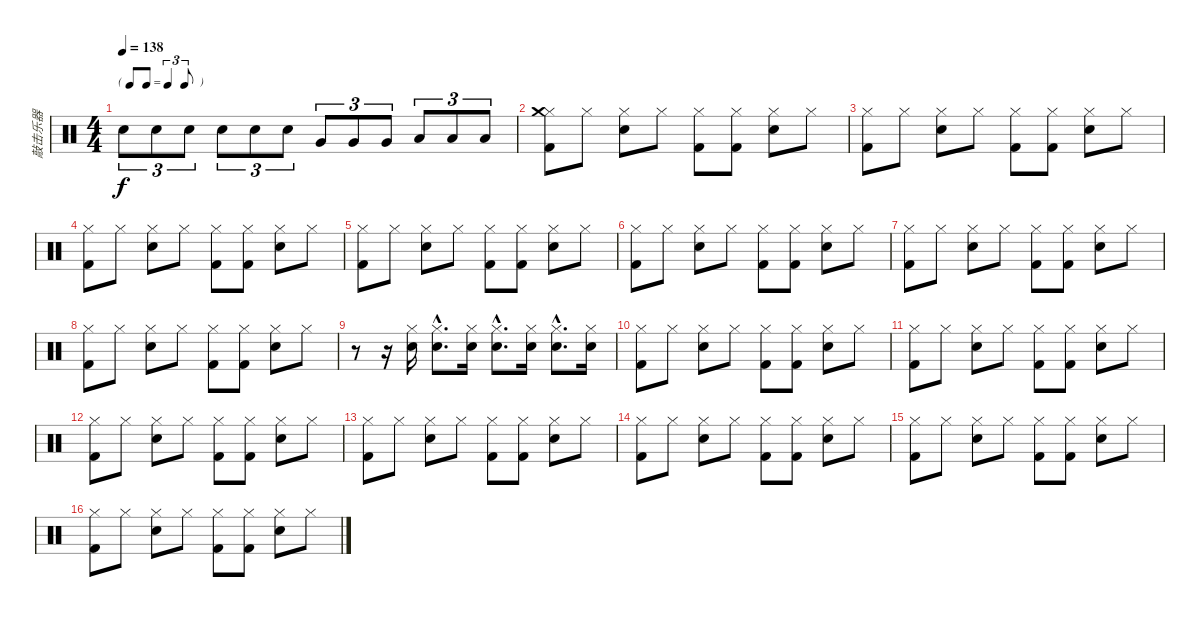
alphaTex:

\track ("敲击乐器" "敲击乐器") {instrument percussion}
\staff {score}
\articulation defaults
\ts (4 4)
\tf triplet8th
\tempo 138
\clef neutral
\ks c "Snare (hit) 2".8{tu (3 2) dy f} "Snare (hit) 2".8{tu (3 2)} "Snare (hit) 2".8{tu (3 2)} "Snare (hit) 2".8{tu (3 2)} "Snare (hit) 2".8{tu (3 2)} "Snare (hit) 2".8{tu (3 2)} "Very Low Tom (hit)".8{tu (3 2)} "Very Low Tom (hit)".8{tu (3 2)} "Very Low Tom (hit)".8{tu (3 2)} "Low Floor Tom (hit)".8{tu (3 2)} "Low Floor Tom (hit)".8{tu (3 2)} "Low Floor Tom (hit)".8{tu (3 2)}
|
("Hi-Hat (closed)" "Crash medium (hit)" "Kick (hit) 2").8 "Hi-Hat (closed)".8 ("Hi-Hat (closed)" "Electric Snare (hit)").8 "Hi-Hat (closed)".8 ("Hi-Hat (closed)" "Kick (hit) 2").8 ("Hi-Hat (closed)" "Kick (hit) 2").8 ("Hi-Hat (closed)" "Electric Snare (hit)").8 "Hi-Hat (closed)".8 |
("Hi-Hat (closed)" "Kick (hit) 2").8 "Hi-Hat (closed)".8 ("Hi-Hat (closed)" "Electric Snare (hit)").8 "Hi-Hat (closed)".8 ("Hi-Hat (closed)" "Kick (hit) 2").8 ("Hi-Hat (closed)" "Kick (hit) 2").8 ("Hi-Hat (closed)" "Electric Snare (hit)").8 "Hi-Hat (closed)".8 |
("Hi-Hat (closed)" "Kick (hit) 2").8 "Hi-Hat (closed)".8 ("Hi-Hat (closed)" "Electric Snare (hit)").8 "Hi-Hat (closed)".8 ("Hi-Hat (closed)" "Kick (hit) 2").8 ("Hi-Hat (closed)" "Kick (hit) 2").8 ("Hi-Hat (closed)" "Electric Snare (hit)").8 "Hi-Hat (closed)".8 |
("Hi-Hat (closed)" "Kick (hit) 2").8 "Hi-Hat (closed)".8 ("Hi-Hat (closed)" "Electric Snare (hit)").8 "Hi-Hat (closed)".8 ("Hi-Hat (closed)" "Kick (hit) 2").8 ("Hi-Hat (closed)" "Kick (hit) 2").8 ("Hi-Hat (closed)" "Electric Snare (hit)").8 "Hi-Hat (closed)".8 |
("Hi-Hat (closed)" "Kick (hit) 2").8 "Hi-Hat (closed)".8 ("Hi-Hat (closed)" "Electric Snare (hit)").8 "Hi-Hat (closed)".8 ("Hi-Hat (closed)" "Kick (hit) 2").8 ("Hi-Hat (closed)" "Kick (hit) 2").8 ("Hi-Hat (closed)" "Electric Snare (hit)").8 "Hi-Hat (closed)".8 |
("Hi-Hat (closed)" "Kick (hit) 2").8 "Hi-Hat (closed)".8 ("Hi-Hat (closed)" "Electric Snare (hit)").8 "Hi-Hat (closed)".8 ("Hi-Hat (closed)" "Kick (hit) 2").8 ("Hi-Hat (closed)" "Kick (hit) 2").8 ("Hi-Hat (closed)" "Electric Snare (hit)").8 "Hi-Hat (closed)".8 |
("Hi-Hat (closed)" "Kick (hit) 2").8 "Hi-Hat (closed)".8 ("Hi-Hat (closed)" "Electric Snare (hit)").8 "Hi-Hat (closed)".8 ("Hi-Hat (closed)" "Kick (hit) 2").8 ("Hi-Hat (closed)" "Kick (hit) 2").8 ("Hi-Hat (closed)" "Electric Snare (hit)").8 "Hi-Hat (closed)".8 |
r.8 r.16 ("Hi-Hat (closed)" "Electric Snare (hit)").16 ("Hi-Hat (closed)"{hac} "Electric Snare (hit)"{hac}).8{d} ("Hi-Hat (closed)" "Electric Snare (hit)").16 ("Hi-Hat (closed)"{hac} "Electric Snare (hit)"{hac}).8{d} ("Hi-Hat (closed)" "Electric Snare (hit)").16 ("Hi-Hat (closed)"{hac} "Electric Snare (hit)"{hac}).8{d} ("Hi-Hat (closed)" "Electric Snare (hit)").16 |
("Hi-Hat (closed)" "Kick (hit) 2").8 "Hi-Hat (closed)".8 ("Hi-Hat (closed)" "Electric Snare (hit)").8 "Hi-Hat (closed)".8 ("Hi-Hat (closed)" "Kick (hit) 2").8 ("Hi-Hat (closed)" "Kick (hit) 2").8 ("Hi-Hat (closed)" "Electric Snare (hit)").8 "Hi-Hat (closed)".8 |
("Hi-Hat (closed)" "Kick (hit) 2").8 "Hi-Hat (closed)".8 ("Hi-Hat (closed)" "Electric Snare (hit)").8 "Hi-Hat (closed)".8 ("Hi-Hat (closed)" "Kick (hit) 2").8 ("Hi-Hat (closed)" "Kick (hit) 2").8 ("Hi-Hat (closed)" "Electric Snare (hit)").8 "Hi-Hat (closed)".8 |
("Hi-Hat (closed)" "Kick (hit) 2").8 "Hi-Hat (closed)".8 ("Hi-Hat (closed)" "Electric Snare (hit)").8 "Hi-Hat (closed)".8 ("Hi-Hat (closed)" "Kick (hit) 2").8 ("Hi-Hat (closed)" "Kick (hit) 2").8 ("Hi-Hat (closed)" "Electric Snare (hit)").8 "Hi-Hat (closed)".8 |
("Hi-Hat (closed)" "Kick (hit) 2").8 "Hi-Hat (closed)".8 ("Hi-Hat (closed)" "Electric Snare (hit)").8 "Hi-Hat (closed)".8 ("Hi-Hat (closed)" "Kick (hit) 2").8 ("Hi-Hat (closed)" "Kick (hit) 2").8 ("Hi-Hat (closed)" "Electric Snare (hit)").8 "Hi-Hat (closed)".8 |
("Hi-Hat (closed)" "Kick (hit) 2").8 "Hi-Hat (closed)".8 ("Hi-Hat (closed)" "Electric Snare (hit)").8 "Hi-Hat (closed)".8 ("Hi-Hat (closed)" "Kick (hit) 2").8 ("Hi-Hat (closed)" "Kick (hit) 2").8 ("Hi-Hat (closed)" "Electric Snare (hit)").8 "Hi-Hat (closed)".8 |
("Hi-Hat (closed)" "Kick (hit) 2").8 "Hi-Hat (closed)".8 ("Hi-Hat (closed)" "Electric Snare (hit)").8 "Hi-Hat (closed)".8 ("Hi-Hat (closed)" "Kick (hit) 2").8 ("Hi-Hat (closed)" "Kick (hit) 2").8 ("Hi-Hat (closed)" "Electric Snare (hit)").8 "Hi-Hat (closed)".8 |
("Hi-Hat (closed)" "Kick (hit) 2").8 "Hi-Hat (closed)".8 ("Hi-Hat (closed)" "Electric Snare (hit)").8 "Hi-Hat (closed)".8 ("Hi-Hat (closed)" "Kick (hit) 2").8 ("Hi-Hat (closed)" "Kick (hit) 2").8 ("Hi-Hat (closed)" "Electric Snare (hit)").8 "Hi-Hat (closed)".8
